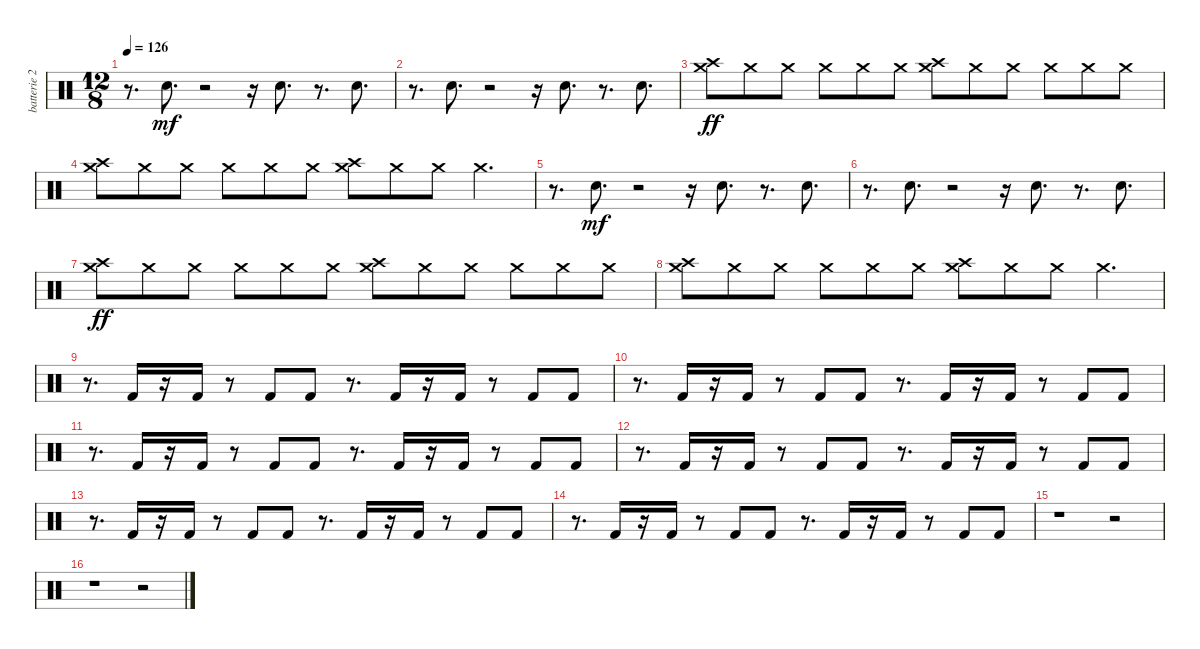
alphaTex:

\track ("batterie 2" "batterie 2") {instrument percussion}
\staff {score}
\articulation defaults
\ts (12 8)
\tempo 126
\clef neutral
\ks c
r.8{d dy mf} "Electric Snare (hit)".8{d} r.2 r.16 "Electric Snare (hit)".8{d} r.8{d} "Electric Snare (hit)".8{d} |
r.8{d} "Electric Snare (hit)".8{d} r.2 r.16 "Electric Snare (hit)".8{d} r.8{d} "Electric Snare (hit)".8{d} |
("Crash high (hit)" "Crash medium (hit)").8{dy ff} "Crash medium (hit)".8 "Crash medium (hit)".8 "Crash medium (hit)".8 "Crash medium (hit)".8 "Crash medium (hit)".8 ("Crash high (hit)" "Crash medium (hit)").8 "Crash medium (hit)".8 "Crash medium (hit)".8 "Crash medium (hit)".8 "Crash medium (hit)".8 "Crash medium (hit)".8 |
("Crash high (hit)" "Crash medium (hit)").8 "Crash medium (hit)".8 "Crash medium (hit)".8 "Crash medium (hit)".8 "Crash medium (hit)".8 "Crash medium (hit)".8 ("Crash high (hit)" "Crash medium (hit)").8 "Crash medium (hit)".8 "Crash medium (hit)".8 "Crash medium (hit)".4{d} |
r.8{d} "Electric Snare (hit)".8{d dy mf} r.2 r.16 "Electric Snare (hit)".8{d} r.8{d} "Electric Snare (hit)".8{d} |
r.8{d} "Electric Snare (hit)".8{d} r.2 r.16 "Electric Snare (hit)".8{d} r.8{d} "Electric Snare (hit)".8{d} |
("Crash high (hit)" "Crash medium (hit)").8{dy ff} "Crash medium (hit)".8 "Crash medium (hit)".8 "Crash medium (hit)".8 "Crash medium (hit)".8 "Crash medium (hit)".8 ("Crash high (hit)" "Crash medium (hit)").8 "Crash medium (hit)".8 "Crash medium (hit)".8 "Crash medium (hit)".8 "Crash medium (hit)".8 "Crash medium (hit)".8 |
("Crash high (hit)" "Crash medium (hit)").8 "Crash medium (hit)".8 "Crash medium (hit)".8 "Crash medium (hit)".8 "Crash medium (hit)".8 "Crash medium (hit)".8 ("Crash high (hit)" "Crash medium (hit)").8 "Crash medium (hit)".8 "Crash medium (hit)".8 "Crash medium (hit)".4{d} |
r.8{d} "Kick (hit) 2".16 r.16 "Kick (hit) 2".16 r.8 "Kick (hit) 2".8 "Kick (hit) 2".8 r.8{d} "Kick (hit) 2".16 r.16 "Kick (hit) 2".16 r.8 "Kick (hit) 2".8 "Kick (hit) 2".8 |
r.8{d} "Kick (hit) 2".16 r.16 "Kick (hit) 2".16 r.8 "Kick (hit) 2".8 "Kick (hit) 2".8 r.8{d} "Kick (hit) 2".16 r.16 "Kick (hit) 2".16 r.8 "Kick (hit) 2".8 "Kick (hit) 2".8 |
r.8{d} "Kick (hit) 2".16 r.16 "Kick (hit) 2".16 r.8 "Kick (hit) 2".8 "Kick (hit) 2".8 r.8{d} "Kick (hit) 2".16 r.16 "Kick (hit) 2".16 r.8 "Kick (hit) 2".8 "Kick (hit) 2".8 |
r.8{d} "Kick (hit) 2".16 r.16 "Kick (hit) 2".16 r.8 "Kick (hit) 2".8 "Kick (hit) 2".8 r.8{d} "Kick (hit) 2".16 r.16 "Kick (hit) 2".16 r.8 "Kick (hit) 2".8 "Kick (hit) 2".8 |
r.8{d} "Kick (hit) 2".16 r.16 "Kick (hit) 2".16 r.8 "Kick (hit) 2".8 "Kick (hit) 2".8 r.8{d} "Kick (hit) 2".16 r.16 "Kick (hit) 2".16 r.8 "Kick (hit) 2".8 "Kick (hit) 2".8 |
r.8{d} "Kick (hit) 2".16 r.16 "Kick (hit) 2".16 r.8 "Kick (hit) 2".8 "Kick (hit) 2".8 r.8{d} "Kick (hit) 2".16 r.16 "Kick (hit) 2".16 r.8 "Kick (hit) 2".8 "Kick (hit) 2".8 |
r.1 r.2 |
r.1 r.2
